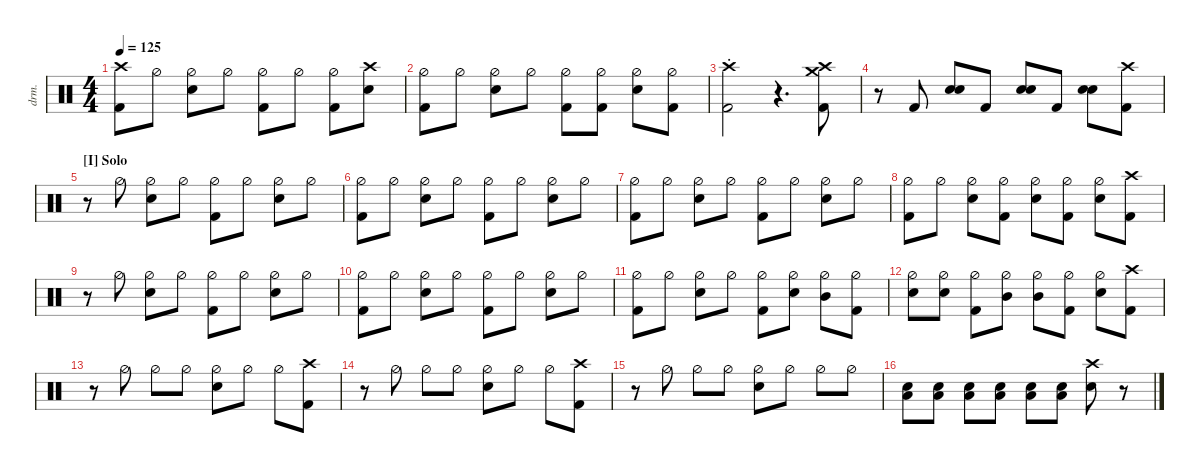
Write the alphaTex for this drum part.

\defaultSystemsLayout 4
\hideDynamics
\bracketExtendMode nobrackets
\otherSystemsTrackNameOrientation horizontal
\track ("Drums" "drm.") {defaultSystemsLayout 4 multiBarRest instrument percussion}
\staff
\articulation defaults
\ts (4 4)
\tempo 125
\clef neutral
\ks c
("Kick (hit) 2" "Crash high (hit)").8{dy f} "Hi-Hat (half)".8 ("Hi-Hat (half)" "Snare (hit) 2").8 "Hi-Hat (half)".8 ("Hi-Hat (half)" "Kick (hit) 2").8 "Hi-Hat (half)".8 ("Hi-Hat (half)" "Kick (hit) 2").8 ("Snare (hit) 2" "Crash high (hit)").8 |
("Hi-Hat (half)" "Kick (hit) 2").8 "Hi-Hat (half)".8 ("Hi-Hat (half)" "Snare (hit) 2").8 "Hi-Hat (half)".8 ("Hi-Hat (half)" "Kick (hit) 2").8 ("Hi-Hat (half)" "Kick (hit) 2").8 ("Hi-Hat (half)" "Snare (hit) 2").8 ("Hi-Hat (half)" "Kick (hit) 2").8 |
("Kick (hit) 2" "Crash high (hit)"{st}).2 r.4{d} ("Kick (hit) 2" "Crash high (hit)" "Crash medium (hit)").8 |
r.8 "Kick (hit) 2".8 ("Snare (hit) 2" "Snare (hit) 2").8 "Kick (hit) 2".8 ("Snare (hit) 2" "Snare (hit) 2").8 "Kick (hit) 2".8 ("Snare (hit) 2" "Snare (hit) 2").8 ("Kick (hit) 2" "Crash high (hit)").8 |
\section ("I" "Solo")
r.8 "Hi-Hat (half)".8 ("Hi-Hat (half)" "Snare (hit) 2").8 "Hi-Hat (half)".8 ("Hi-Hat (half)" "Kick (hit) 2").8 "Hi-Hat (half)".8 ("Hi-Hat (half)" "Snare (hit) 2").8 "Hi-Hat (half)".8 |
("Hi-Hat (half)" "Kick (hit) 2").8 "Hi-Hat (half)".8 ("Hi-Hat (half)" "Snare (hit) 2").8 "Hi-Hat (half)".8 ("Hi-Hat (half)" "Kick (hit) 2").8 "Hi-Hat (half)".8 ("Hi-Hat (half)" "Snare (hit) 2").8 "Hi-Hat (half)".8 |
("Hi-Hat (half)" "Kick (hit) 2").8 "Hi-Hat (half)".8 ("Hi-Hat (half)" "Snare (hit) 2").8 "Hi-Hat (half)".8 ("Hi-Hat (half)" "Kick (hit) 2").8 "Hi-Hat (half)".8 ("Hi-Hat (half)" "Snare (hit) 2").8 "Hi-Hat (half)".8 |
("Hi-Hat (half)" "Kick (hit) 2").8 "Hi-Hat (half)".8 ("Snare (hit) 2" "Hi-Hat (half)").8 ("Hi-Hat (half)" "Kick (hit) 2").8 ("Snare (hit) 2" "Hi-Hat (half)").8 ("Kick (hit) 2" "Hi-Hat (half)").8 ("Snare (hit) 2" "Hi-Hat (half)").8 ("Crash high (hit)" "Kick (hit) 2").8 |
r.8 "Hi-Hat (half)".8 ("Hi-Hat (half)" "Snare (hit) 2").8 "Hi-Hat (half)".8 ("Hi-Hat (half)" "Kick (hit) 2").8 "Hi-Hat (half)".8 ("Hi-Hat (half)" "Snare (hit) 2").8 "Hi-Hat (half)".8 |
("Hi-Hat (half)" "Kick (hit) 2").8 "Hi-Hat (half)".8 ("Hi-Hat (half)" "Snare (hit) 2").8 "Hi-Hat (half)".8 ("Hi-Hat (half)" "Kick (hit) 2").8 "Hi-Hat (half)".8 ("Hi-Hat (half)" "Snare (hit) 2").8 "Hi-Hat (half)".8 |
("Hi-Hat (half)" "Kick (hit) 2").8 "Hi-Hat (half)".8 ("Hi-Hat (half)" "Snare (hit) 2").8 "Hi-Hat (half)".8 ("Hi-Hat (half)" "Kick (hit) 2").8 ("Hi-Hat (half)" "Snare (hit) 2").8 ("Hi-Hat (half)" "Mid Tom (hit)").8 ("Hi-Hat (half)" "Kick (hit) 2").8 |
("Hi-Hat (half)" "Snare (hit) 2").8 ("Hi-Hat (half)" "Snare (hit) 2").8 ("Hi-Hat (half)" "Kick (hit) 2").8 ("Hi-Hat (half)" "Mid Tom (hit)").8 ("Hi-Hat (half)" "Mid Tom (hit)").8 ("Hi-Hat (half)" "Kick (hit) 2").8 ("Hi-Hat (half)" "Snare (hit) 2").8 ("Kick (hit) 2" "Crash high (hit)").8 |
r.8 "Hi-Hat (half)".8 "Hi-Hat (half)".8 "Hi-Hat (half)".8 ("Hi-Hat (half)" "Snare (hit) 2").8 "Hi-Hat (half)".8 "Hi-Hat (half)".8 ("Crash high (hit)" "Kick (hit) 2").8 |
r.8 "Hi-Hat (half)".8 "Hi-Hat (half)".8 "Hi-Hat (half)".8 ("Hi-Hat (half)" "Snare (hit) 2").8 "Hi-Hat (half)".8 "Hi-Hat (half)".8 ("Crash high (hit)" "Kick (hit) 2").8 |
r.8 "Hi-Hat (half)".8 "Hi-Hat (half)".8 "Hi-Hat (half)".8 ("Hi-Hat (half)" "Snare (hit) 2").8 "Hi-Hat (half)".8 "Hi-Hat (half)".8 "Hi-Hat (half)".8 |
("Low Tom (hit)" "Snare (hit) 2").8 ("Low Tom (hit)" "Snare (hit) 2").8 ("Low Tom (hit)" "Snare (hit) 2").8 ("Low Tom (hit)" "Snare (hit) 2").8 ("Low Tom (hit)" "Snare (hit) 2").8 ("Low Tom (hit)" "Snare (hit) 2").8 ("Snare (hit) 2" "Crash high (hit)").8 r.8
